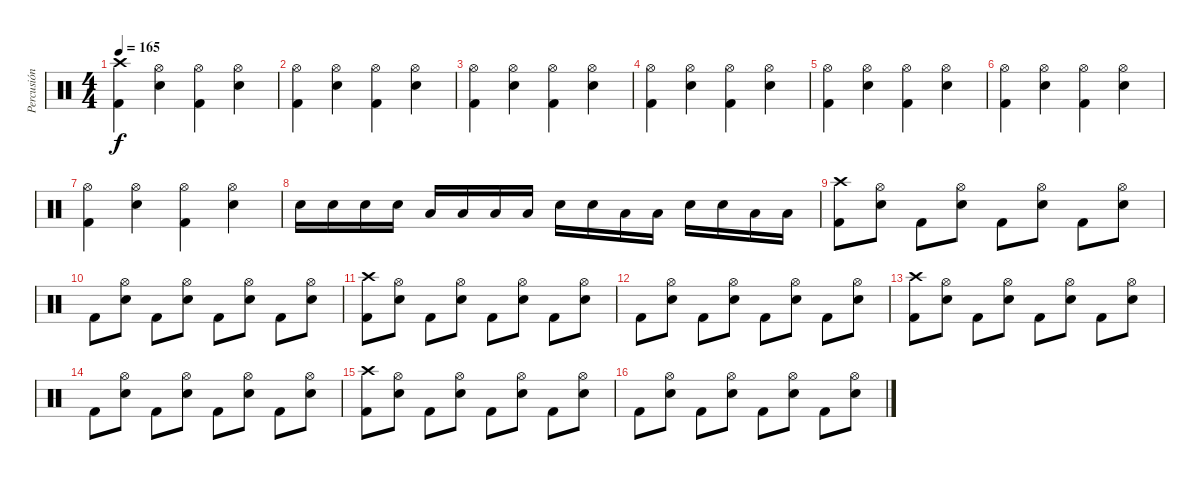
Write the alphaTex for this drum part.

\track ("Percusión" "Percusión") {instrument percussion}
\staff {score}
\articulation defaults
\ts (4 4)
\tempo 165
\clef neutral
\ks c
("Crash high (hit)" "Kick (hit) 2").4{dy f} ("Hi-Hat (open)" "Snare (hit) 2").4 ("Hi-Hat (open)" "Kick (hit) 2").4 ("Hi-Hat (open)" "Snare (hit) 2").4 |
("Hi-Hat (open)" "Kick (hit) 2").4 ("Hi-Hat (open)" "Snare (hit) 2").4 ("Hi-Hat (open)" "Kick (hit) 2").4 ("Hi-Hat (open)" "Snare (hit) 2").4 |
("Hi-Hat (open)" "Kick (hit) 2").4 ("Hi-Hat (open)" "Snare (hit) 2").4 ("Hi-Hat (open)" "Kick (hit) 2").4 ("Hi-Hat (open)" "Snare (hit) 2").4 |
("Hi-Hat (open)" "Kick (hit) 2").4 ("Hi-Hat (open)" "Snare (hit) 2").4 ("Hi-Hat (open)" "Kick (hit) 2").4 ("Hi-Hat (open)" "Snare (hit) 2").4 |
("Hi-Hat (open)" "Kick (hit) 2").4 ("Hi-Hat (open)" "Snare (hit) 2").4 ("Hi-Hat (open)" "Kick (hit) 2").4 ("Hi-Hat (open)" "Snare (hit) 2").4 |
("Hi-Hat (open)" "Kick (hit) 2").4 ("Hi-Hat (open)" "Snare (hit) 2").4 ("Hi-Hat (open)" "Kick (hit) 2").4 ("Hi-Hat (open)" "Snare (hit) 2").4 |
("Hi-Hat (open)" "Kick (hit) 2").4 ("Hi-Hat (open)" "Snare (hit) 2").4 ("Hi-Hat (open)" "Kick (hit) 2").4 ("Hi-Hat (open)" "Snare (hit) 2").4 |
"Snare (hit) 2".16 "Snare (hit) 2".16 "Snare (hit) 2".16 "Snare (hit) 2".16 "Low Tom (hit)".16 "Low Tom (hit)".16 "Low Tom (hit)".16 "Low Tom (hit)".16 "Snare (hit) 2".16 "Snare (hit) 2".16 "Low Tom (hit)".16 "Low Tom (hit)".16 "Snare (hit) 2".16 "Snare (hit) 2".16 "Low Tom (hit)".16 "Low Tom (hit)".16 |
("Crash high (hit)" "Kick (hit) 2").8 ("Hi-Hat (open)" "Snare (hit) 2").8 "Kick (hit) 2".8 ("Hi-Hat (open)" "Snare (hit) 2").8 "Kick (hit) 2".8 ("Hi-Hat (open)" "Snare (hit) 2").8 "Kick (hit) 2".8 ("Hi-Hat (open)" "Snare (hit) 2").8 |
"Kick (hit) 2".8 ("Hi-Hat (open)" "Snare (hit) 2").8 "Kick (hit) 2".8 ("Hi-Hat (open)" "Snare (hit) 2").8 "Kick (hit) 2".8 ("Hi-Hat (open)" "Snare (hit) 2").8 "Kick (hit) 2".8 ("Hi-Hat (open)" "Snare (hit) 2").8 |
("Crash high (hit)" "Kick (hit) 2").8 ("Hi-Hat (open)" "Snare (hit) 2").8 "Kick (hit) 2".8 ("Hi-Hat (open)" "Snare (hit) 2").8 "Kick (hit) 2".8 ("Hi-Hat (open)" "Snare (hit) 2").8 "Kick (hit) 2".8 ("Hi-Hat (open)" "Snare (hit) 2").8 |
"Kick (hit) 2".8 ("Hi-Hat (open)" "Snare (hit) 2").8 "Kick (hit) 2".8 ("Hi-Hat (open)" "Snare (hit) 2").8 "Kick (hit) 2".8 ("Hi-Hat (open)" "Snare (hit) 2").8 "Kick (hit) 2".8 ("Hi-Hat (open)" "Snare (hit) 2").8 |
("Crash high (hit)" "Kick (hit) 2").8 ("Hi-Hat (open)" "Snare (hit) 2").8 "Kick (hit) 2".8 ("Hi-Hat (open)" "Snare (hit) 2").8 "Kick (hit) 2".8 ("Hi-Hat (open)" "Snare (hit) 2").8 "Kick (hit) 2".8 ("Hi-Hat (open)" "Snare (hit) 2").8 |
"Kick (hit) 2".8 ("Hi-Hat (open)" "Snare (hit) 2").8 "Kick (hit) 2".8 ("Hi-Hat (open)" "Snare (hit) 2").8 "Kick (hit) 2".8 ("Hi-Hat (open)" "Snare (hit) 2").8 "Kick (hit) 2".8 ("Hi-Hat (open)" "Snare (hit) 2").8 |
("Crash high (hit)" "Kick (hit) 2").8 ("Hi-Hat (open)" "Snare (hit) 2").8 "Kick (hit) 2".8 ("Hi-Hat (open)" "Snare (hit) 2").8 "Kick (hit) 2".8 ("Hi-Hat (open)" "Snare (hit) 2").8 "Kick (hit) 2".8 ("Hi-Hat (open)" "Snare (hit) 2").8 |
"Kick (hit) 2".8 ("Hi-Hat (open)" "Snare (hit) 2").8 "Kick (hit) 2".8 ("Hi-Hat (open)" "Snare (hit) 2").8 "Kick (hit) 2".8 ("Hi-Hat (open)" "Snare (hit) 2").8 "Kick (hit) 2".8 ("Hi-Hat (open)" "Snare (hit) 2").8
